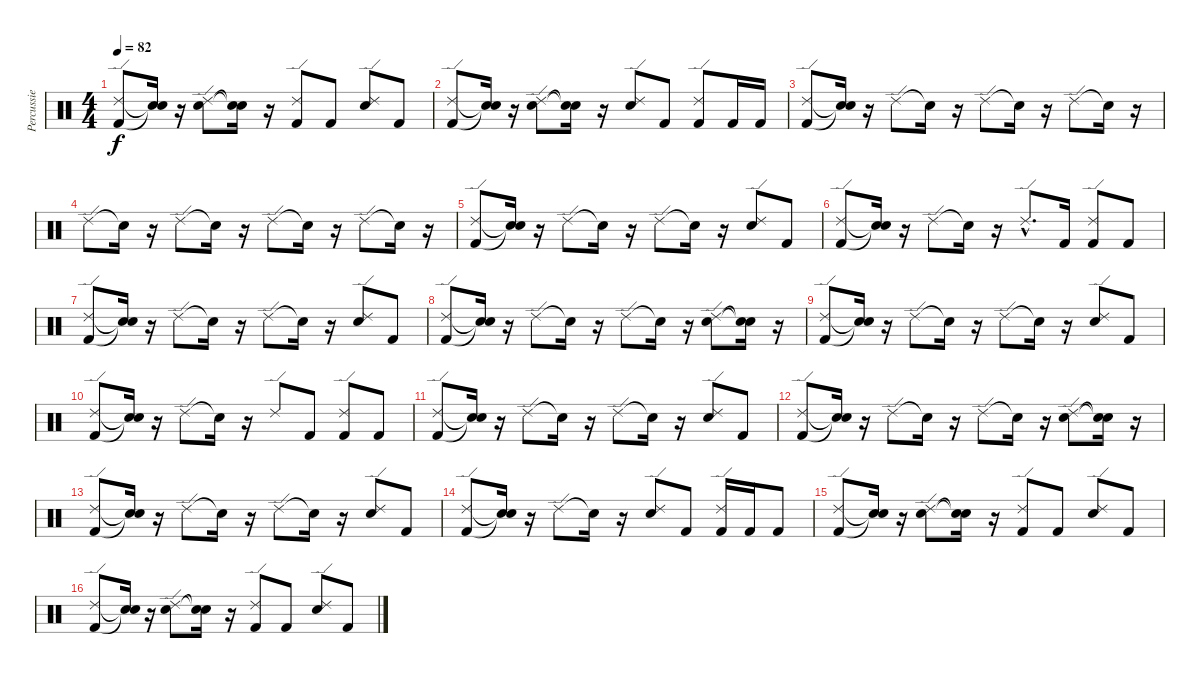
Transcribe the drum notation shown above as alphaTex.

\track ("Percussie" "Percussie") {instrument percussion}
\staff {score}
\articulation defaults
\ts (4 4)
\tempo 82
\clef neutral
\ks c
("Kick (hit) 2" "Ride (edge) 2").8{dy f} ("Snare (hit)"{t} "Snare (hit)"{t}).16 r.16 ("Snare (hit) 2" "Ride (edge) 2").8 ("Snare (hit)"{t} "Snare (hit)"{t}).16 r.16 ("Kick (hit) 2" "Ride (edge) 2").8 "Kick (hit) 2".8 ("Snare (hit) 2" "Ride (edge) 2").8 "Kick (hit) 2".8 |
("Kick (hit) 2" "Ride (edge) 2").8 ("Snare (hit)"{t} "Snare (hit)"{t}).16 r.16 ("Snare (hit) 2" "Ride (edge) 2").8 ("Snare (hit)"{t} "Snare (hit)"{t}).16 r.16 ("Snare (hit) 2" "Ride (edge) 2").8 "Kick (hit) 2".8 ("Kick (hit) 2" "Ride (edge) 2").8 "Kick (hit) 2".16 "Kick (hit) 2".16 |
("Kick (hit) 2" "Ride (edge) 2").8 ("Snare (hit)"{t} "Snare (hit)"{t}).16 r.16 "Ride (edge) 2".8 "Snare (hit)"{t}.16 r.16 "Ride (edge) 2".8 "Snare (hit)"{t}.16 r.16 "Ride (edge) 2".8 "Snare (hit)"{t}.16 r.16 |
"Ride (edge) 2".8 "Snare (hit)"{t}.16 r.16 "Ride (edge) 2".8 "Snare (hit)"{t}.16 r.16 "Ride (edge) 2".8 "Snare (hit)"{t}.16 r.16 "Ride (edge) 2".8 "Snare (hit)"{t}.16 r.16 |
("Kick (hit) 2" "Ride (edge) 2").8 ("Snare (hit)"{t} "Snare (hit)"{t}).16 r.16 "Ride (edge) 2".8 "Snare (hit)"{t}.16 r.16 "Ride (edge) 2".8 "Snare (hit)"{t}.16 r.16 ("Snare (hit) 2" "Ride (edge) 2").8 "Kick (hit) 2".8 |
("Kick (hit) 2" "Ride (edge) 2").8 ("Snare (hit)"{t} "Snare (hit)"{t}).16 r.16 "Ride (edge) 2".8 "Snare (hit)"{t}.16 r.16 "Ride (edge) 2"{hac}.8{d} "Kick (hit) 2".16 ("Kick (hit) 2" "Ride (edge) 2").8 "Kick (hit) 2".8 |
("Kick (hit) 2" "Ride (edge) 2").8 ("Snare (hit)"{t} "Snare (hit)"{t}).16 r.16 "Ride (edge) 2".8 "Snare (hit)"{t}.16 r.16 "Ride (edge) 2".8 "Snare (hit)"{t}.16 r.16 ("Snare (hit) 2" "Ride (edge) 2").8 "Kick (hit) 2".8 |
("Kick (hit) 2" "Ride (edge) 2").8 ("Snare (hit)"{t} "Snare (hit)"{t}).16 r.16 "Ride (edge) 2".8 "Snare (hit)"{t}.16 r.16 "Ride (edge) 2".8 "Snare (hit)"{t}.16 r.16 ("Snare (hit) 2" "Ride (edge) 2").8 ("Snare (hit)"{t} "Snare (hit)"{t}).16 r.16 |
("Kick (hit) 2" "Ride (edge) 2").8 ("Snare (hit)"{t} "Snare (hit)"{t}).16 r.16 "Ride (edge) 2".8 "Snare (hit)"{t}.16 r.16 "Ride (edge) 2".8 "Snare (hit)"{t}.16 r.16 ("Snare (hit) 2" "Ride (edge) 2").8 "Kick (hit) 2".8 |
("Kick (hit) 2" "Ride (edge) 2").8 ("Snare (hit)"{t} "Snare (hit)"{t}).16 r.16 "Ride (edge) 2".8 "Snare (hit)"{t}.16 r.16 "Ride (edge) 2".8 "Kick (hit) 2".8 ("Kick (hit) 2" "Ride (edge) 2").8 "Kick (hit) 2".8 |
("Kick (hit) 2" "Ride (edge) 2").8 ("Snare (hit)"{t} "Snare (hit)"{t}).16 r.16 "Ride (edge) 2".8 "Snare (hit)"{t}.16 r.16 "Ride (edge) 2".8 "Snare (hit)"{t}.16 r.16 ("Snare (hit) 2" "Ride (edge) 2").8 "Kick (hit) 2".8 |
("Kick (hit) 2" "Ride (edge) 2").8 ("Snare (hit)"{t} "Snare (hit)"{t}).16 r.16 "Ride (edge) 2".8 "Snare (hit)"{t}.16 r.16 "Ride (edge) 2".8 "Snare (hit)"{t}.16 r.16 ("Snare (hit) 2" "Ride (edge) 2").8 ("Snare (hit)"{t} "Snare (hit)"{t}).16 r.16 |
("Kick (hit) 2" "Ride (edge) 2").8 ("Snare (hit)"{t} "Snare (hit)"{t}).16 r.16 "Ride (edge) 2".8 "Snare (hit)"{t}.16 r.16 "Ride (edge) 2".8 "Snare (hit)"{t}.16 r.16 ("Snare (hit) 2" "Ride (edge) 2").8 "Kick (hit) 2".8 |
("Kick (hit) 2" "Ride (edge) 2").8 ("Snare (hit)"{t} "Snare (hit)"{t}).16 r.16 "Ride (edge) 2".8 "Snare (hit)"{t}.16 r.16 ("Snare (hit) 2" "Ride (edge) 2").8 "Kick (hit) 2".8 ("Kick (hit) 2" "Ride (edge) 2").16 "Kick (hit) 2".16 "Kick (hit) 2".8 |
("Kick (hit) 2" "Ride (edge) 2").8 ("Snare (hit)"{t} "Snare (hit)"{t}).16 r.16 ("Snare (hit) 2" "Ride (edge) 2").8 ("Snare (hit)"{t} "Snare (hit)"{t}).16 r.16 ("Kick (hit) 2" "Ride (edge) 2").8 "Kick (hit) 2".8 ("Snare (hit) 2" "Ride (edge) 2").8 "Kick (hit) 2".8 |
("Kick (hit) 2" "Ride (edge) 2").8 ("Snare (hit)"{t} "Snare (hit)"{t}).16 r.16 ("Snare (hit) 2" "Ride (edge) 2").8 ("Snare (hit)"{t} "Snare (hit)"{t}).16 r.16 ("Kick (hit) 2" "Ride (edge) 2").8 "Kick (hit) 2".8 ("Snare (hit) 2" "Ride (edge) 2").8 "Kick (hit) 2".8
